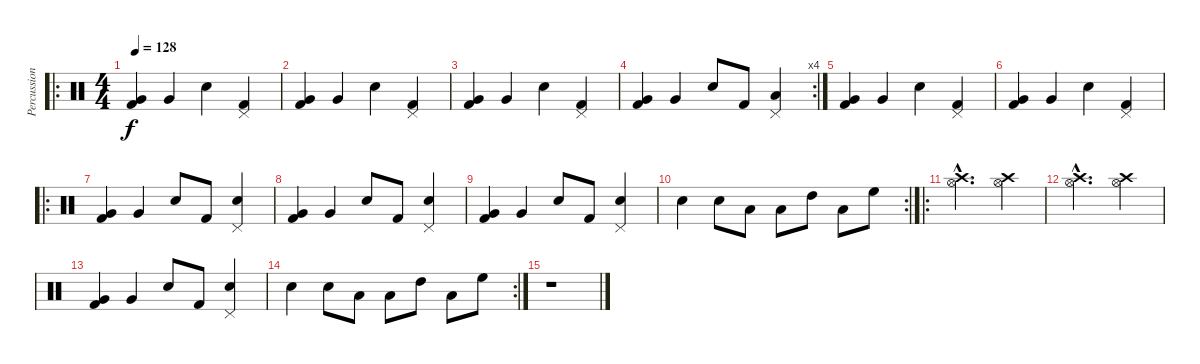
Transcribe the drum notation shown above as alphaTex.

\track ("Percussions" "Percussion") {instrument percussion}
\staff {score}
\articulation defaults
\ro
\ts (4 4)
\tempo 128
\clef neutral
\ks c
("Kick (hit) 2" "Very Low Tom (hit)").4{dy f} "Very Low Tom (hit)".4 "Snare (hit) 2".4 ("Kick (hit) 2" "Pedal Hi-Hat (hit)").4 |
("Kick (hit) 2" "Very Low Tom (hit)").4 "Very Low Tom (hit)".4 "Snare (hit) 2".4 ("Kick (hit) 2" "Pedal Hi-Hat (hit)").4 |
("Kick (hit) 2" "Very Low Tom (hit)").4 "Very Low Tom (hit)".4 "Snare (hit) 2".4 ("Kick (hit) 2" "Pedal Hi-Hat (hit)").4 |
\rc 4
("Kick (hit) 2" "Very Low Tom (hit)").4 "Very Low Tom (hit)".4 "Snare (hit) 2".8 "Kick (hit) 2".8 ("Low Tom (hit)" "Pedal Hi-Hat (hit)").4 |
("Kick (hit) 2" "Very Low Tom (hit)").4 "Very Low Tom (hit)".4 "Snare (hit) 2".4 ("Kick (hit) 2" "Pedal Hi-Hat (hit)").4 |
("Kick (hit) 2" "Very Low Tom (hit)").4 "Very Low Tom (hit)".4 "Snare (hit) 2".4 ("Kick (hit) 2" "Pedal Hi-Hat (hit)").4 |
\ro
("Kick (hit) 2" "Very Low Tom (hit)").4 "Very Low Tom (hit)".4 "Snare (hit) 2".8 "Kick (hit) 2".8 ("Snare (hit) 2" "Pedal Hi-Hat (hit)").4 |
("Kick (hit) 2" "Very Low Tom (hit)").4 "Very Low Tom (hit)".4 "Snare (hit) 2".8 "Kick (hit) 2".8 ("Snare (hit) 2" "Pedal Hi-Hat (hit)").4 |
("Kick (hit) 2" "Very Low Tom (hit)").4 "Very Low Tom (hit)".4 "Snare (hit) 2".8 "Kick (hit) 2".8 ("Snare (hit) 2" "Pedal Hi-Hat (hit)").4 |
\rc 2 "Snare (hit) 2".4 "Snare (hit) 2".8 "Low Tom (hit)".8 "Low Floor Tom (hit)".8 "High Tom (hit)".8 "Low Tom (hit)".8 "High Floor Tom (hit)".8
|
\ro
("Hi-Hat (open)"{hac} "Crash high (hit)"{hac}).2{d} ("Crash high (hit)" "Hi-Hat (open)").4 |
("Hi-Hat (open)"{hac} "Crash high (hit)"{hac}).2{d} ("Crash high (hit)" "Hi-Hat (open)").4 |
("Kick (hit) 2" "Very Low Tom (hit)").4 "Very Low Tom (hit)".4 "Snare (hit) 2".8 "Kick (hit) 2".8 ("Snare (hit) 2" "Pedal Hi-Hat (hit)").4 |
\rc 2 "Snare (hit) 2".4 "Snare (hit) 2".8 "Low Tom (hit)".8 "Low Floor Tom (hit)".8 "High Tom (hit)".8 "Low Tom (hit)".8 "High Floor Tom (hit)".8
|
r.1
